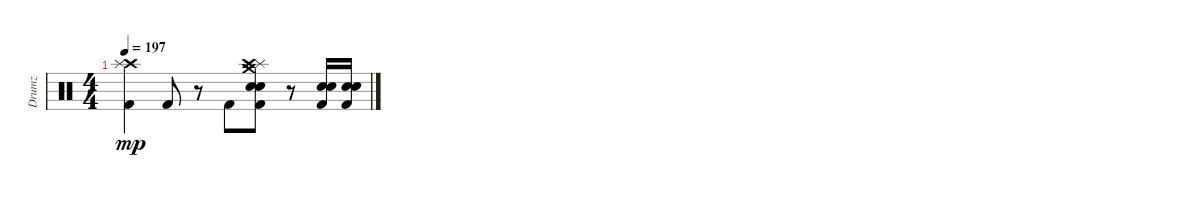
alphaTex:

\track ("Drumz" "Drumz") {instrument percussion}
\staff {score}
\articulation defaults
\ts (4 4)
\tempo 197
\clef neutral
\ks c
("Crash high (hit)" "Splash (hit)" "Kick (hit) 2").4{dy mp} "Kick (hit) 2".8 r.8 "Kick (hit) 2".8 ("Kick (hit) 2" "Snare (hit) 2" "Electric Snare (hit)" "Crash medium (hit)" "Splash (hit)" "Crash high (hit)").8 r.8 ("Snare (hit) 2" "Kick (hit) 2" "Electric Snare (hit)").16 ("Snare (hit) 2" "Electric Snare (hit)" "Kick (hit) 2").16
